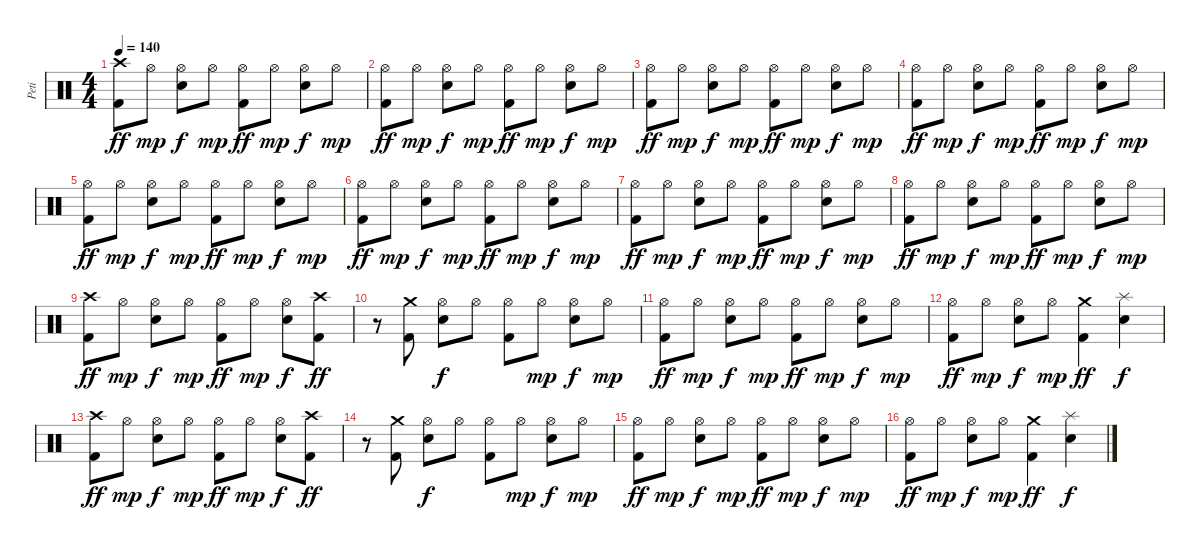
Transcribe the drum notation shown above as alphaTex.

\track ("Peti" "Peti") {instrument percussion}
\staff {score}
\articulation defaults
\ts (4 4)
\tempo 140
\clef neutral
\ks c
("Crash high (hit)" "Kick (hit) 2").8{dy ff} "Hi-Hat (open)".8{dy mp} ("Hi-Hat (open)" "Snare (hit) 2").8{dy f} "Hi-Hat (open)".8{dy mp} ("Hi-Hat (open)" "Kick (hit) 2").8{dy ff} "Hi-Hat (open)".8{dy mp} ("Hi-Hat (open)" "Snare (hit) 2").8{dy f} "Hi-Hat (open)".8{dy mp} |
("Hi-Hat (open)" "Kick (hit) 2").8{dy ff} "Hi-Hat (open)".8{dy mp} ("Hi-Hat (open)" "Snare (hit) 2").8{dy f} "Hi-Hat (open)".8{dy mp} ("Hi-Hat (open)" "Kick (hit) 2").8{dy ff} "Hi-Hat (open)".8{dy mp} ("Hi-Hat (open)" "Snare (hit) 2").8{dy f} "Hi-Hat (open)".8{dy mp} |
("Hi-Hat (open)" "Kick (hit) 2").8{dy ff} "Hi-Hat (open)".8{dy mp} ("Hi-Hat (open)" "Snare (hit) 2").8{dy f} "Hi-Hat (open)".8{dy mp} ("Hi-Hat (open)" "Kick (hit) 2").8{dy ff} "Hi-Hat (open)".8{dy mp} ("Hi-Hat (open)" "Snare (hit) 2").8{dy f} "Hi-Hat (open)".8{dy mp} |
("Hi-Hat (open)" "Kick (hit) 2").8{dy ff} "Hi-Hat (open)".8{dy mp} ("Hi-Hat (open)" "Snare (hit) 2").8{dy f} "Hi-Hat (open)".8{dy mp} ("Hi-Hat (open)" "Kick (hit) 2").8{dy ff} "Hi-Hat (open)".8{dy mp} ("Hi-Hat (open)" "Snare (hit) 2").8{dy f} "Hi-Hat (open)".8{dy mp} |
("Hi-Hat (open)" "Kick (hit) 2").8{dy ff} "Hi-Hat (open)".8{dy mp} ("Hi-Hat (open)" "Snare (hit) 2").8{dy f} "Hi-Hat (open)".8{dy mp} ("Hi-Hat (open)" "Kick (hit) 2").8{dy ff} "Hi-Hat (open)".8{dy mp} ("Hi-Hat (open)" "Snare (hit) 2").8{dy f} "Hi-Hat (open)".8{dy mp} |
("Hi-Hat (open)" "Kick (hit) 2").8{dy ff} "Hi-Hat (open)".8{dy mp} ("Hi-Hat (open)" "Snare (hit) 2").8{dy f} "Hi-Hat (open)".8{dy mp} ("Hi-Hat (open)" "Kick (hit) 2").8{dy ff} "Hi-Hat (open)".8{dy mp} ("Hi-Hat (open)" "Snare (hit) 2").8{dy f} "Hi-Hat (open)".8{dy mp} |
("Hi-Hat (open)" "Kick (hit) 2").8{dy ff} "Hi-Hat (open)".8{dy mp} ("Hi-Hat (open)" "Snare (hit) 2").8{dy f} "Hi-Hat (open)".8{dy mp} ("Hi-Hat (open)" "Kick (hit) 2").8{dy ff} "Hi-Hat (open)".8{dy mp} ("Hi-Hat (open)" "Snare (hit) 2").8{dy f} "Hi-Hat (open)".8{dy mp} |
("Hi-Hat (open)" "Kick (hit) 2").8{dy ff} "Hi-Hat (open)".8{dy mp} ("Hi-Hat (open)" "Snare (hit) 2").8{dy f} "Hi-Hat (open)".8{dy mp} ("Hi-Hat (open)" "Kick (hit) 2").8{dy ff} "Hi-Hat (open)".8{dy mp} ("Hi-Hat (open)" "Snare (hit) 2").8{dy f} "Hi-Hat (open)".8{dy mp} |
("Crash high (hit)" "Kick (hit) 2").8{dy ff} "Hi-Hat (open)".8{dy mp} ("Hi-Hat (open)" "Snare (hit) 2").8{dy f} "Hi-Hat (open)".8{dy mp} ("Hi-Hat (open)" "Kick (hit) 2").8{dy ff} "Hi-Hat (open)".8{dy mp} ("Hi-Hat (open)" "Snare (hit) 2").8{dy f} ("Crash high (hit)" "Kick (hit) 2").8{dy ff} |
r.8 ("Crash medium (hit)" "Kick (hit) 2").8 ("Hi-Hat (open)" "Snare (hit) 2").8{dy f} "Hi-Hat (open)".8 ("Hi-Hat (open)" "Kick (hit) 2").8 "Hi-Hat (open)".8{dy mp} ("Hi-Hat (open)" "Snare (hit) 2").8{dy f} "Hi-Hat (open)".8{dy mp} |
("Hi-Hat (open)" "Kick (hit) 2").8{dy ff} "Hi-Hat (open)".8{dy mp} ("Hi-Hat (open)" "Snare (hit) 2").8{dy f} "Hi-Hat (open)".8{dy mp} ("Hi-Hat (open)" "Kick (hit) 2").8{dy ff} "Hi-Hat (open)".8{dy mp} ("Hi-Hat (open)" "Snare (hit) 2").8{dy f} "Hi-Hat (open)".8{dy mp} |
("Hi-Hat (open)" "Kick (hit) 2").8{dy ff} "Hi-Hat (open)".8{dy mp} ("Hi-Hat (open)" "Snare (hit) 2").8{dy f} "Hi-Hat (open)".8{dy mp} ("Crash medium (hit)" "Kick (hit) 2").4{dy ff} ("Splash (hit)" "Snare (hit) 2").4{dy f} |
("Crash high (hit)" "Kick (hit) 2").8{dy ff} "Hi-Hat (open)".8{dy mp} ("Hi-Hat (open)" "Snare (hit) 2").8{dy f} "Hi-Hat (open)".8{dy mp} ("Hi-Hat (open)" "Kick (hit) 2").8{dy ff} "Hi-Hat (open)".8{dy mp} ("Hi-Hat (open)" "Snare (hit) 2").8{dy f} ("Crash high (hit)" "Kick (hit) 2").8{dy ff} |
r.8 ("Crash medium (hit)" "Kick (hit) 2").8 ("Hi-Hat (open)" "Snare (hit) 2").8{dy f} "Hi-Hat (open)".8 ("Hi-Hat (open)" "Kick (hit) 2").8 "Hi-Hat (open)".8{dy mp} ("Hi-Hat (open)" "Snare (hit) 2").8{dy f} "Hi-Hat (open)".8{dy mp} |
("Hi-Hat (open)" "Kick (hit) 2").8{dy ff} "Hi-Hat (open)".8{dy mp} ("Hi-Hat (open)" "Snare (hit) 2").8{dy f} "Hi-Hat (open)".8{dy mp} ("Hi-Hat (open)" "Kick (hit) 2").8{dy ff} "Hi-Hat (open)".8{dy mp} ("Hi-Hat (open)" "Snare (hit) 2").8{dy f} "Hi-Hat (open)".8{dy mp} |
("Hi-Hat (open)" "Kick (hit) 2").8{dy ff} "Hi-Hat (open)".8{dy mp} ("Hi-Hat (open)" "Snare (hit) 2").8{dy f} "Hi-Hat (open)".8{dy mp} ("Crash medium (hit)" "Kick (hit) 2").4{dy ff} ("Splash (hit)" "Snare (hit) 2").4{dy f}
